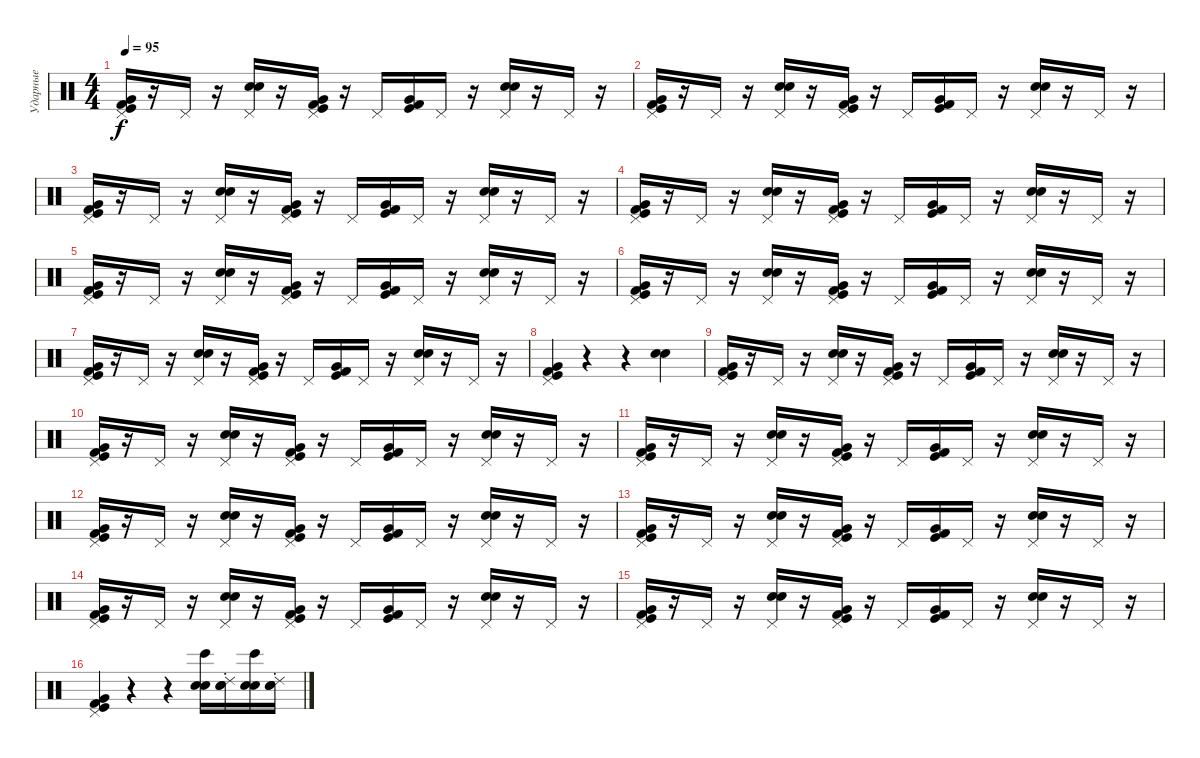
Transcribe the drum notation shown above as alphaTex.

\track ("Ударные" "Ударные") {instrument percussion}
\staff {score}
\articulation defaults
\ts (4 4)
\tempo 95
\clef neutral
\ks c
("Pedal Hi-Hat (hit)" "Very Low Tom (hit)" "Kick (hit)" "Kick (hit) 2").16{dy f} r.16 "Pedal Hi-Hat (hit)".16 r.16 ("Pedal Hi-Hat (hit)" "Electric Snare (hit)" "Snare (hit) 2").16 r.16 ("Pedal Hi-Hat (hit)" "Very Low Tom (hit)" "Kick (hit)" "Kick (hit) 2").16 r.16 "Pedal Hi-Hat (hit)".16 ("Very Low Tom (hit)" "Kick (hit)" "Kick (hit) 2").16 "Pedal Hi-Hat (hit)".16 r.16 ("Pedal Hi-Hat (hit)" "Electric Snare (hit)" "Snare (hit) 2").16 r.16 "Pedal Hi-Hat (hit)".16 r.16 |
("Pedal Hi-Hat (hit)" "Very Low Tom (hit)" "Kick (hit)" "Kick (hit) 2").16 r.16 "Pedal Hi-Hat (hit)".16 r.16 ("Pedal Hi-Hat (hit)" "Electric Snare (hit)" "Snare (hit) 2").16 r.16 ("Pedal Hi-Hat (hit)" "Very Low Tom (hit)" "Kick (hit)" "Kick (hit) 2").16 r.16 "Pedal Hi-Hat (hit)".16 ("Very Low Tom (hit)" "Kick (hit)" "Kick (hit) 2").16 "Pedal Hi-Hat (hit)".16 r.16 ("Pedal Hi-Hat (hit)" "Electric Snare (hit)" "Snare (hit) 2").16 r.16 "Pedal Hi-Hat (hit)".16 r.16 |
("Pedal Hi-Hat (hit)" "Very Low Tom (hit)" "Kick (hit)" "Kick (hit) 2").16 r.16 "Pedal Hi-Hat (hit)".16 r.16 ("Pedal Hi-Hat (hit)" "Electric Snare (hit)" "Snare (hit) 2").16 r.16 ("Pedal Hi-Hat (hit)" "Very Low Tom (hit)" "Kick (hit)" "Kick (hit) 2").16 r.16 "Pedal Hi-Hat (hit)".16 ("Very Low Tom (hit)" "Kick (hit)" "Kick (hit) 2").16 "Pedal Hi-Hat (hit)".16 r.16 ("Pedal Hi-Hat (hit)" "Electric Snare (hit)" "Snare (hit) 2").16 r.16 "Pedal Hi-Hat (hit)".16 r.16 |
("Pedal Hi-Hat (hit)" "Very Low Tom (hit)" "Kick (hit)" "Kick (hit) 2").16 r.16 "Pedal Hi-Hat (hit)".16 r.16 ("Pedal Hi-Hat (hit)" "Electric Snare (hit)" "Snare (hit) 2").16 r.16 ("Pedal Hi-Hat (hit)" "Very Low Tom (hit)" "Kick (hit)" "Kick (hit) 2").16 r.16 "Pedal Hi-Hat (hit)".16 ("Very Low Tom (hit)" "Kick (hit)" "Kick (hit) 2").16 "Pedal Hi-Hat (hit)".16 r.16 ("Pedal Hi-Hat (hit)" "Electric Snare (hit)" "Snare (hit) 2").16 r.16 "Pedal Hi-Hat (hit)".16 r.16 |
("Pedal Hi-Hat (hit)" "Very Low Tom (hit)" "Kick (hit)" "Kick (hit) 2").16 r.16 "Pedal Hi-Hat (hit)".16 r.16 ("Pedal Hi-Hat (hit)" "Electric Snare (hit)" "Snare (hit) 2").16 r.16 ("Pedal Hi-Hat (hit)" "Very Low Tom (hit)" "Kick (hit)" "Kick (hit) 2").16 r.16 "Pedal Hi-Hat (hit)".16 ("Very Low Tom (hit)" "Kick (hit)" "Kick (hit) 2").16 "Pedal Hi-Hat (hit)".16 r.16 ("Pedal Hi-Hat (hit)" "Electric Snare (hit)" "Snare (hit) 2").16 r.16 "Pedal Hi-Hat (hit)".16 r.16 |
("Pedal Hi-Hat (hit)" "Very Low Tom (hit)" "Kick (hit)" "Kick (hit) 2").16 r.16 "Pedal Hi-Hat (hit)".16 r.16 ("Pedal Hi-Hat (hit)" "Electric Snare (hit)" "Snare (hit) 2").16 r.16 ("Pedal Hi-Hat (hit)" "Very Low Tom (hit)" "Kick (hit)" "Kick (hit) 2").16 r.16 "Pedal Hi-Hat (hit)".16 ("Very Low Tom (hit)" "Kick (hit)" "Kick (hit) 2").16 "Pedal Hi-Hat (hit)".16 r.16 ("Pedal Hi-Hat (hit)" "Electric Snare (hit)" "Snare (hit) 2").16 r.16 "Pedal Hi-Hat (hit)".16 r.16 |
("Pedal Hi-Hat (hit)" "Very Low Tom (hit)" "Kick (hit)" "Kick (hit) 2").16 r.16 "Pedal Hi-Hat (hit)".16 r.16 ("Pedal Hi-Hat (hit)" "Electric Snare (hit)" "Snare (hit) 2").16 r.16 ("Pedal Hi-Hat (hit)" "Very Low Tom (hit)" "Kick (hit)" "Kick (hit) 2").16 r.16 "Pedal Hi-Hat (hit)".16 ("Very Low Tom (hit)" "Kick (hit)" "Kick (hit) 2").16 "Pedal Hi-Hat (hit)".16 r.16 ("Pedal Hi-Hat (hit)" "Electric Snare (hit)" "Snare (hit) 2").16 r.16 "Pedal Hi-Hat (hit)".16 r.16 |
("Pedal Hi-Hat (hit)" "Very Low Tom (hit)" "Kick (hit)" "Kick (hit) 2").4 r.4 r.4 ("Snare (hit) 2" "Electric Snare (hit)").4 |
("Pedal Hi-Hat (hit)" "Very Low Tom (hit)" "Kick (hit)" "Kick (hit) 2").16 r.16 "Pedal Hi-Hat (hit)".16 r.16 ("Pedal Hi-Hat (hit)" "Electric Snare (hit)" "Snare (hit) 2").16 r.16 ("Pedal Hi-Hat (hit)" "Very Low Tom (hit)" "Kick (hit)" "Kick (hit) 2").16 r.16 "Pedal Hi-Hat (hit)".16 ("Very Low Tom (hit)" "Kick (hit)" "Kick (hit) 2").16 "Pedal Hi-Hat (hit)".16 r.16 ("Pedal Hi-Hat (hit)" "Electric Snare (hit)" "Snare (hit) 2").16 r.16 "Pedal Hi-Hat (hit)".16 r.16 |
("Pedal Hi-Hat (hit)" "Very Low Tom (hit)" "Kick (hit)" "Kick (hit) 2").16 r.16 "Pedal Hi-Hat (hit)".16 r.16 ("Pedal Hi-Hat (hit)" "Electric Snare (hit)" "Snare (hit) 2").16 r.16 ("Pedal Hi-Hat (hit)" "Very Low Tom (hit)" "Kick (hit)" "Kick (hit) 2").16 r.16 "Pedal Hi-Hat (hit)".16 ("Very Low Tom (hit)" "Kick (hit)" "Kick (hit) 2").16 "Pedal Hi-Hat (hit)".16 r.16 ("Pedal Hi-Hat (hit)" "Electric Snare (hit)" "Snare (hit) 2").16 r.16 "Pedal Hi-Hat (hit)".16 r.16 |
("Pedal Hi-Hat (hit)" "Very Low Tom (hit)" "Kick (hit)" "Kick (hit) 2").16 r.16 "Pedal Hi-Hat (hit)".16 r.16 ("Pedal Hi-Hat (hit)" "Electric Snare (hit)" "Snare (hit) 2").16 r.16 ("Pedal Hi-Hat (hit)" "Very Low Tom (hit)" "Kick (hit)" "Kick (hit) 2").16 r.16 "Pedal Hi-Hat (hit)".16 ("Very Low Tom (hit)" "Kick (hit)" "Kick (hit) 2").16 "Pedal Hi-Hat (hit)".16 r.16 ("Pedal Hi-Hat (hit)" "Electric Snare (hit)" "Snare (hit) 2").16 r.16 "Pedal Hi-Hat (hit)".16 r.16 |
("Pedal Hi-Hat (hit)" "Very Low Tom (hit)" "Kick (hit)" "Kick (hit) 2").16 r.16 "Pedal Hi-Hat (hit)".16 r.16 ("Pedal Hi-Hat (hit)" "Electric Snare (hit)" "Snare (hit) 2").16 r.16 ("Pedal Hi-Hat (hit)" "Very Low Tom (hit)" "Kick (hit)" "Kick (hit) 2").16 r.16 "Pedal Hi-Hat (hit)".16 ("Very Low Tom (hit)" "Kick (hit)" "Kick (hit) 2").16 "Pedal Hi-Hat (hit)".16 r.16 ("Pedal Hi-Hat (hit)" "Electric Snare (hit)" "Snare (hit) 2").16 r.16 "Pedal Hi-Hat (hit)".16 r.16 |
("Pedal Hi-Hat (hit)" "Very Low Tom (hit)" "Kick (hit)" "Kick (hit) 2").16 r.16 "Pedal Hi-Hat (hit)".16 r.16 ("Pedal Hi-Hat (hit)" "Electric Snare (hit)" "Snare (hit) 2").16 r.16 ("Pedal Hi-Hat (hit)" "Very Low Tom (hit)" "Kick (hit)" "Kick (hit) 2").16 r.16 "Pedal Hi-Hat (hit)".16 ("Very Low Tom (hit)" "Kick (hit)" "Kick (hit) 2").16 "Pedal Hi-Hat (hit)".16 r.16 ("Pedal Hi-Hat (hit)" "Electric Snare (hit)" "Snare (hit) 2").16 r.16 "Pedal Hi-Hat (hit)".16 r.16 |
("Pedal Hi-Hat (hit)" "Very Low Tom (hit)" "Kick (hit)" "Kick (hit) 2").16 r.16 "Pedal Hi-Hat (hit)".16 r.16 ("Pedal Hi-Hat (hit)" "Electric Snare (hit)" "Snare (hit) 2").16 r.16 ("Pedal Hi-Hat (hit)" "Very Low Tom (hit)" "Kick (hit)" "Kick (hit) 2").16 r.16 "Pedal Hi-Hat (hit)".16 ("Very Low Tom (hit)" "Kick (hit)" "Kick (hit) 2").16 "Pedal Hi-Hat (hit)".16 r.16 ("Pedal Hi-Hat (hit)" "Electric Snare (hit)" "Snare (hit) 2").16 r.16 "Pedal Hi-Hat (hit)".16 r.16 |
("Pedal Hi-Hat (hit)" "Very Low Tom (hit)" "Kick (hit)" "Kick (hit) 2").16 r.16 "Pedal Hi-Hat (hit)".16 r.16 ("Pedal Hi-Hat (hit)" "Electric Snare (hit)" "Snare (hit) 2").16 r.16 ("Pedal Hi-Hat (hit)" "Very Low Tom (hit)" "Kick (hit)" "Kick (hit) 2").16 r.16 "Pedal Hi-Hat (hit)".16 ("Very Low Tom (hit)" "Kick (hit)" "Kick (hit) 2").16 "Pedal Hi-Hat (hit)".16 r.16 ("Pedal Hi-Hat (hit)" "Electric Snare (hit)" "Snare (hit) 2").16 r.16 "Pedal Hi-Hat (hit)".16 r.16 |
("Pedal Hi-Hat (hit)" "Very Low Tom (hit)" "Kick (hit)" "Kick (hit) 2").4 r.4 r.4 ("Bongo High (hit)" "Electric Snare (hit)" "Snare (hit) 2").16 ("Ride (choke) 2" "Electric Snare (hit)" "Snare (hit) 2").16 ("Bongo High (hit)" "Electric Snare (hit)" "Snare (hit) 2").16 ("Ride (choke) 2" "Electric Snare (hit)" "Snare (hit) 2").16
